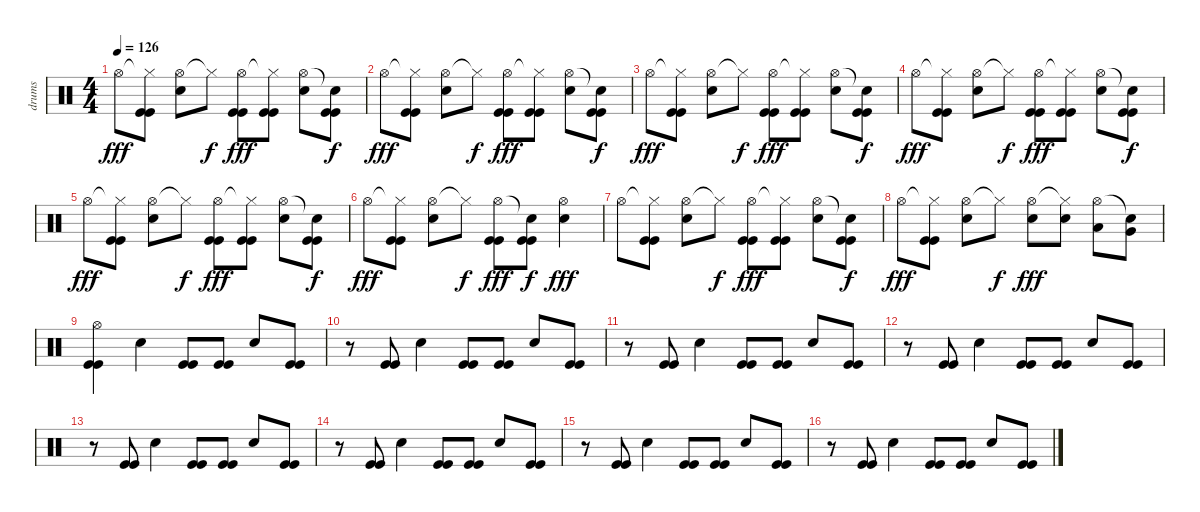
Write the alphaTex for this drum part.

\track ("drums" "drums") {instrument percussion}
\staff {score}
\articulation defaults
\ts (4 4)
\tempo 126
\clef neutral
\ks c "Hi-Hat (open)".8{dy fff}
("Hi-Hat (closed)"{t} "Kick (hit)" "Kick (hit)").8 ("Hi-Hat (open)" "Electric Snare (hit)").8 "Hi-Hat (closed)"{t}.8{dy f} ("Hi-Hat (open)" "Kick (hit)" "Kick (hit)").8{dy fff} ("Hi-Hat (closed)"{t} "Kick (hit)" "Kick (hit)").8 ("Hi-Hat (open)" "Electric Snare (hit)").8 ("Snare (hit)"{t} "Kick (hit)" "Kick (hit)").8{dy f} |
"Hi-Hat (open)".8{dy fff} ("Hi-Hat (closed)"{t} "Kick (hit)" "Kick (hit)").8 ("Hi-Hat (open)" "Electric Snare (hit)").8 "Hi-Hat (closed)"{t}.8{dy f} ("Hi-Hat (open)" "Kick (hit)" "Kick (hit)").8{dy fff} ("Hi-Hat (closed)"{t} "Kick (hit)" "Kick (hit)").8 ("Hi-Hat (open)" "Electric Snare (hit)").8 ("Snare (hit)"{t} "Kick (hit)" "Kick (hit)").8{dy f} |
"Hi-Hat (open)".8{dy fff} ("Hi-Hat (closed)"{t} "Kick (hit)" "Kick (hit)").8 ("Hi-Hat (open)" "Electric Snare (hit)").8 "Hi-Hat (closed)"{t}.8{dy f} ("Hi-Hat (open)" "Kick (hit)" "Kick (hit)").8{dy fff} ("Hi-Hat (closed)"{t} "Kick (hit)" "Kick (hit)").8 ("Hi-Hat (open)" "Electric Snare (hit)").8 ("Snare (hit)"{t} "Kick (hit)" "Kick (hit)").8{dy f} |
"Hi-Hat (open)".8{dy fff} ("Hi-Hat (closed)"{t} "Kick (hit)" "Kick (hit)").8 ("Hi-Hat (open)" "Electric Snare (hit)").8 "Hi-Hat (closed)"{t}.8{dy f} ("Hi-Hat (open)" "Kick (hit)" "Kick (hit)").8{dy fff} ("Hi-Hat (closed)"{t} "Kick (hit)" "Kick (hit)").8 ("Hi-Hat (open)" "Electric Snare (hit)").8 ("Snare (hit)"{t} "Kick (hit)" "Kick (hit)").8{dy f} |
"Hi-Hat (open)".8{dy fff} ("Hi-Hat (closed)"{t} "Kick (hit)" "Kick (hit)").8 ("Hi-Hat (open)" "Electric Snare (hit)").8 "Hi-Hat (closed)"{t}.8{dy f} ("Hi-Hat (open)" "Kick (hit)" "Kick (hit)").8{dy fff} ("Hi-Hat (closed)"{t} "Kick (hit)" "Kick (hit)").8 ("Hi-Hat (open)" "Electric Snare (hit)").8 ("Snare (hit)"{t} "Kick (hit)" "Kick (hit)").8{dy f} |
"Hi-Hat (open)".8{dy fff} ("Hi-Hat (closed)"{t} "Kick (hit)" "Kick (hit)").8 ("Hi-Hat (open)" "Electric Snare (hit)").8 "Hi-Hat (closed)"{t}.8{dy f} ("Hi-Hat (open)" "Kick (hit)" "Kick (hit)").8{dy fff} ("Snare (hit)"{t} "Kick (hit)" "Kick (hit)").8{dy f} ("Hi-Hat (open)" "Electric Snare (hit)").4{dy fff} |
"Hi-Hat (open)".8 ("Hi-Hat (closed)"{t} "Kick (hit)" "Kick (hit)").8 ("Hi-Hat (open)" "Electric Snare (hit)").8 "Hi-Hat (closed)"{t}.8{dy f} ("Hi-Hat (open)" "Kick (hit)" "Kick (hit)").8{dy fff} ("Hi-Hat (closed)"{t} "Kick (hit)" "Kick (hit)").8 ("Hi-Hat (open)" "Electric Snare (hit)").8 ("Snare (hit)"{t} "Kick (hit)" "Kick (hit)").8{dy f} |
"Hi-Hat (open)".8{dy fff} ("Hi-Hat (closed)"{t} "Kick (hit)" "Kick (hit)").8 ("Hi-Hat (open)" "Electric Snare (hit)").8 "Hi-Hat (closed)"{t}.8{dy f} ("Hi-Hat (open)" "Electric Snare (hit)").8{dy fff} ("Hi-Hat (closed)"{t} "Electric Snare (hit)").8 ("Hi-Hat (open)" "Low Tom (hit)").8 ("Snare (hit)"{t} "Very Low Tom (hit)").8 |
("Hi-Hat (open)" "Kick (hit)" "Kick (hit)").4 "Electric Snare (hit)".4 ("Kick (hit)" "Kick (hit)").8 ("Kick (hit)" "Kick (hit)").8 "Electric Snare (hit)".8 ("Kick (hit)" "Kick (hit)").8 |
r.8 ("Kick (hit)" "Kick (hit)").8 "Electric Snare (hit)".4 ("Kick (hit)" "Kick (hit)").8 ("Kick (hit)" "Kick (hit)").8 "Electric Snare (hit)".8 ("Kick (hit)" "Kick (hit)").8 |
r.8 ("Kick (hit)" "Kick (hit)").8 "Electric Snare (hit)".4 ("Kick (hit)" "Kick (hit)").8 ("Kick (hit)" "Kick (hit)").8 "Electric Snare (hit)".8 ("Kick (hit)" "Kick (hit)").8 |
r.8 ("Kick (hit)" "Kick (hit)").8 "Electric Snare (hit)".4 ("Kick (hit)" "Kick (hit)").8 ("Kick (hit)" "Kick (hit)").8 "Electric Snare (hit)".8 ("Kick (hit)" "Kick (hit)").8 |
r.8 ("Kick (hit)" "Kick (hit)").8 "Electric Snare (hit)".4 ("Kick (hit)" "Kick (hit)").8 ("Kick (hit)" "Kick (hit)").8 "Electric Snare (hit)".8 ("Kick (hit)" "Kick (hit)").8 |
r.8 ("Kick (hit)" "Kick (hit)").8 "Electric Snare (hit)".4 ("Kick (hit)" "Kick (hit)").8 ("Kick (hit)" "Kick (hit)").8 "Electric Snare (hit)".8 ("Kick (hit)" "Kick (hit)").8 |
r.8 ("Kick (hit)" "Kick (hit)").8 "Electric Snare (hit)".4 ("Kick (hit)" "Kick (hit)").8 ("Kick (hit)" "Kick (hit)").8 "Electric Snare (hit)".8 ("Kick (hit)" "Kick (hit)").8 |
r.8 ("Kick (hit)" "Kick (hit)").8 "Electric Snare (hit)".4 ("Kick (hit)" "Kick (hit)").8 ("Kick (hit)" "Kick (hit)").8 "Electric Snare (hit)".8 ("Kick (hit)" "Kick (hit)").8
